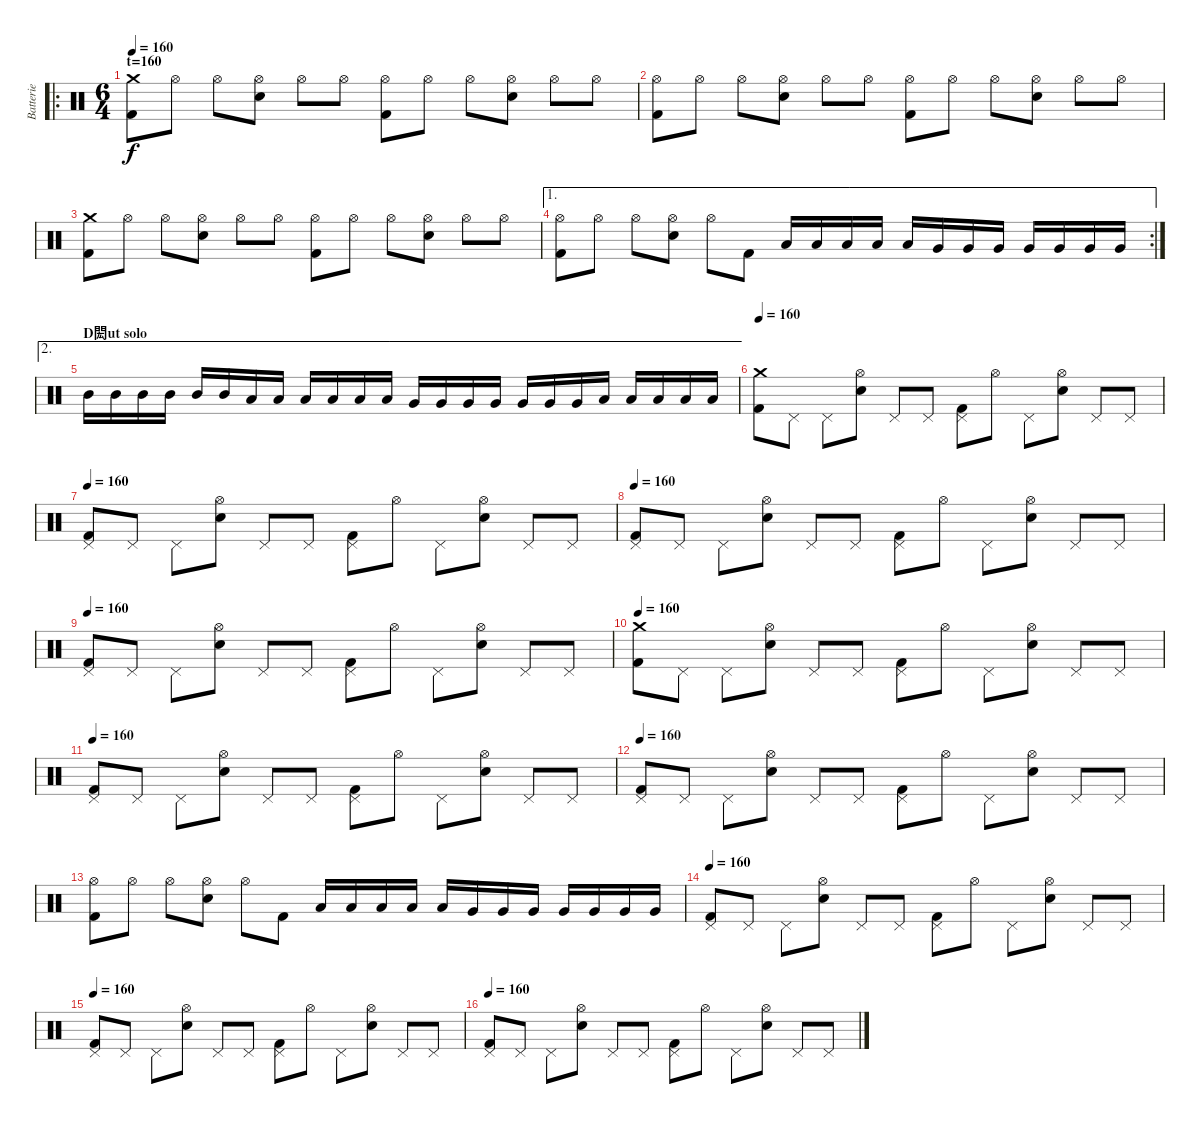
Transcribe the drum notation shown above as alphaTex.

\track ("Batterie" "Batterie") {instrument percussion}
\staff {score}
\articulation defaults
\ro
\ts (6 4)
\section ("" "t=160")
\tempo 160
\clef neutral
\ks c
("Crash medium (hit)" "Kick (hit) 2").8{dy f} "Hi-Hat (open)".8 "Hi-Hat (open)".8 ("Hi-Hat (open)" "Electric Snare (hit)").8 "Hi-Hat (open)".8 "Hi-Hat (open)".8 ("Hi-Hat (open)" "Kick (hit) 2").8 "Hi-Hat (open)".8 "Hi-Hat (open)".8 ("Hi-Hat (open)" "Electric Snare (hit)").8 "Hi-Hat (open)".8 "Hi-Hat (open)".8 |
("Hi-Hat (open)" "Kick (hit) 2").8 "Hi-Hat (open)".8 "Hi-Hat (open)".8 ("Hi-Hat (open)" "Electric Snare (hit)").8 "Hi-Hat (open)".8 "Hi-Hat (open)".8 ("Hi-Hat (open)" "Kick (hit) 2").8 "Hi-Hat (open)".8 "Hi-Hat (open)".8 ("Hi-Hat (open)" "Electric Snare (hit)").8 "Hi-Hat (open)".8 "Hi-Hat (open)".8 |
("Crash medium (hit)" "Kick (hit) 2").8 "Hi-Hat (open)".8 "Hi-Hat (open)".8 ("Hi-Hat (open)" "Electric Snare (hit)").8 "Hi-Hat (open)".8 "Hi-Hat (open)".8 ("Hi-Hat (open)" "Kick (hit) 2").8 "Hi-Hat (open)".8 "Hi-Hat (open)".8 ("Hi-Hat (open)" "Electric Snare (hit)").8 "Hi-Hat (open)".8 "Hi-Hat (open)".8 |
\ae 1
\rc 2
("Hi-Hat (open)" "Kick (hit) 2").8 "Hi-Hat (open)".8 "Hi-Hat (open)".8 ("Hi-Hat (open)" "Electric Snare (hit)").8 "Hi-Hat (open)".8 "Kick (hit) 2".8 "Low Tom (hit)".16 "Low Tom (hit)".16 "Low Tom (hit)".16 "Low Tom (hit)".16 "Low Tom (hit)".16 "Very Low Tom (hit)".16 "Very Low Tom (hit)".16 "Very Low Tom (hit)".16 "Very Low Tom (hit)".16 "Very Low Tom (hit)".16 "Very Low Tom (hit)".16 "Very Low Tom (hit)".16 |
\ae 2
\section ("" "D閎ut solo")
"Mid Tom (hit)".16 "Mid Tom (hit)".16 "Mid Tom (hit)".16 "Mid Tom (hit)".16 "Mid Tom (hit)".16 "Mid Tom (hit)".16 "Low Tom (hit)".16 "Low Tom (hit)".16 "Low Tom (hit)".16 "Low Tom (hit)".16 "Low Tom (hit)".16 "Low Tom (hit)".16 "Very Low Tom (hit)".16 "Very Low Tom (hit)".16 "Very Low Tom (hit)".16 "Very Low Tom (hit)".16 "Very Low Tom (hit)".16 "Very Low Tom (hit)".16 "Very Low Tom (hit)".16 "Low Floor Tom (hit)".16 "Low Floor Tom (hit)".16 "Low Floor Tom (hit)".16 "Low Floor Tom (hit)".16 "Low Floor Tom (hit)".16 |
\tempo 160
("Crash medium (hit)" "Kick (hit) 2").8 "Pedal Hi-Hat (hit)".8 "Pedal Hi-Hat (hit)".8 ("Hi-Hat (open)" "Electric Snare (hit)").8 "Pedal Hi-Hat (hit)".8 "Pedal Hi-Hat (hit)".8 ("Pedal Hi-Hat (hit)" "Kick (hit) 2").8 "Hi-Hat (open)".8 "Pedal Hi-Hat (hit)".8 ("Hi-Hat (open)" "Electric Snare (hit)").8 "Pedal Hi-Hat (hit)".8 "Pedal Hi-Hat (hit)".8 |
\tempo 160
("Pedal Hi-Hat (hit)" "Kick (hit) 2").8 "Pedal Hi-Hat (hit)".8 "Pedal Hi-Hat (hit)".8 ("Hi-Hat (open)" "Electric Snare (hit)").8 "Pedal Hi-Hat (hit)".8 "Pedal Hi-Hat (hit)".8 ("Pedal Hi-Hat (hit)" "Kick (hit) 2").8 "Hi-Hat (open)".8 "Pedal Hi-Hat (hit)".8 ("Hi-Hat (open)" "Electric Snare (hit)").8 "Pedal Hi-Hat (hit)".8 "Pedal Hi-Hat (hit)".8 |
\tempo 160
("Pedal Hi-Hat (hit)" "Kick (hit) 2").8 "Pedal Hi-Hat (hit)".8 "Pedal Hi-Hat (hit)".8 ("Hi-Hat (open)" "Electric Snare (hit)").8 "Pedal Hi-Hat (hit)".8 "Pedal Hi-Hat (hit)".8 ("Pedal Hi-Hat (hit)" "Kick (hit) 2").8 "Hi-Hat (open)".8 "Pedal Hi-Hat (hit)".8 ("Hi-Hat (open)" "Electric Snare (hit)").8 "Pedal Hi-Hat (hit)".8 "Pedal Hi-Hat (hit)".8 |
\tempo 160
("Pedal Hi-Hat (hit)" "Kick (hit) 2").8 "Pedal Hi-Hat (hit)".8 "Pedal Hi-Hat (hit)".8 ("Hi-Hat (open)" "Electric Snare (hit)").8 "Pedal Hi-Hat (hit)".8 "Pedal Hi-Hat (hit)".8 ("Pedal Hi-Hat (hit)" "Kick (hit) 2").8 "Hi-Hat (open)".8 "Pedal Hi-Hat (hit)".8 ("Hi-Hat (open)" "Electric Snare (hit)").8 "Pedal Hi-Hat (hit)".8 "Pedal Hi-Hat (hit)".8 |
\tempo 160
("Crash medium (hit)" "Kick (hit) 2").8 "Pedal Hi-Hat (hit)".8 "Pedal Hi-Hat (hit)".8 ("Hi-Hat (open)" "Electric Snare (hit)").8 "Pedal Hi-Hat (hit)".8 "Pedal Hi-Hat (hit)".8 ("Pedal Hi-Hat (hit)" "Kick (hit) 2").8 "Hi-Hat (open)".8 "Pedal Hi-Hat (hit)".8 ("Hi-Hat (open)" "Electric Snare (hit)").8 "Pedal Hi-Hat (hit)".8 "Pedal Hi-Hat (hit)".8 |
\tempo 160
("Pedal Hi-Hat (hit)" "Kick (hit) 2").8 "Pedal Hi-Hat (hit)".8 "Pedal Hi-Hat (hit)".8 ("Hi-Hat (open)" "Electric Snare (hit)").8 "Pedal Hi-Hat (hit)".8 "Pedal Hi-Hat (hit)".8 ("Pedal Hi-Hat (hit)" "Kick (hit) 2").8 "Hi-Hat (open)".8 "Pedal Hi-Hat (hit)".8 ("Hi-Hat (open)" "Electric Snare (hit)").8 "Pedal Hi-Hat (hit)".8 "Pedal Hi-Hat (hit)".8 |
\tempo 160
("Pedal Hi-Hat (hit)" "Kick (hit) 2").8 "Pedal Hi-Hat (hit)".8 "Pedal Hi-Hat (hit)".8 ("Hi-Hat (open)" "Electric Snare (hit)").8 "Pedal Hi-Hat (hit)".8 "Pedal Hi-Hat (hit)".8 ("Pedal Hi-Hat (hit)" "Kick (hit) 2").8 "Hi-Hat (open)".8 "Pedal Hi-Hat (hit)".8 ("Hi-Hat (open)" "Electric Snare (hit)").8 "Pedal Hi-Hat (hit)".8 "Pedal Hi-Hat (hit)".8 |
("Hi-Hat (open)" "Kick (hit) 2").8 "Hi-Hat (open)".8 "Hi-Hat (open)".8 ("Hi-Hat (open)" "Electric Snare (hit)").8 "Hi-Hat (open)".8 "Kick (hit) 2".8 "Low Tom (hit)".16 "Low Tom (hit)".16 "Low Tom (hit)".16 "Low Tom (hit)".16 "Low Tom (hit)".16 "Very Low Tom (hit)".16 "Very Low Tom (hit)".16 "Very Low Tom (hit)".16 "Very Low Tom (hit)".16 "Very Low Tom (hit)".16 "Very Low Tom (hit)".16 "Very Low Tom (hit)".16 |
\tempo 160
("Pedal Hi-Hat (hit)" "Kick (hit) 2").8 "Pedal Hi-Hat (hit)".8 "Pedal Hi-Hat (hit)".8 ("Hi-Hat (open)" "Electric Snare (hit)").8 "Pedal Hi-Hat (hit)".8 "Pedal Hi-Hat (hit)".8 ("Pedal Hi-Hat (hit)" "Kick (hit) 2").8 "Hi-Hat (open)".8 "Pedal Hi-Hat (hit)".8 ("Hi-Hat (open)" "Electric Snare (hit)").8 "Pedal Hi-Hat (hit)".8 "Pedal Hi-Hat (hit)".8 |
\tempo 160
("Pedal Hi-Hat (hit)" "Kick (hit) 2").8 "Pedal Hi-Hat (hit)".8 "Pedal Hi-Hat (hit)".8 ("Hi-Hat (open)" "Electric Snare (hit)").8 "Pedal Hi-Hat (hit)".8 "Pedal Hi-Hat (hit)".8 ("Pedal Hi-Hat (hit)" "Kick (hit) 2").8 "Hi-Hat (open)".8 "Pedal Hi-Hat (hit)".8 ("Hi-Hat (open)" "Electric Snare (hit)").8 "Pedal Hi-Hat (hit)".8 "Pedal Hi-Hat (hit)".8 |
\tempo 160
("Pedal Hi-Hat (hit)" "Kick (hit) 2").8 "Pedal Hi-Hat (hit)".8 "Pedal Hi-Hat (hit)".8 ("Hi-Hat (open)" "Electric Snare (hit)").8 "Pedal Hi-Hat (hit)".8 "Pedal Hi-Hat (hit)".8 ("Pedal Hi-Hat (hit)" "Kick (hit) 2").8 "Hi-Hat (open)".8 "Pedal Hi-Hat (hit)".8 ("Hi-Hat (open)" "Electric Snare (hit)").8 "Pedal Hi-Hat (hit)".8 "Pedal Hi-Hat (hit)".8
